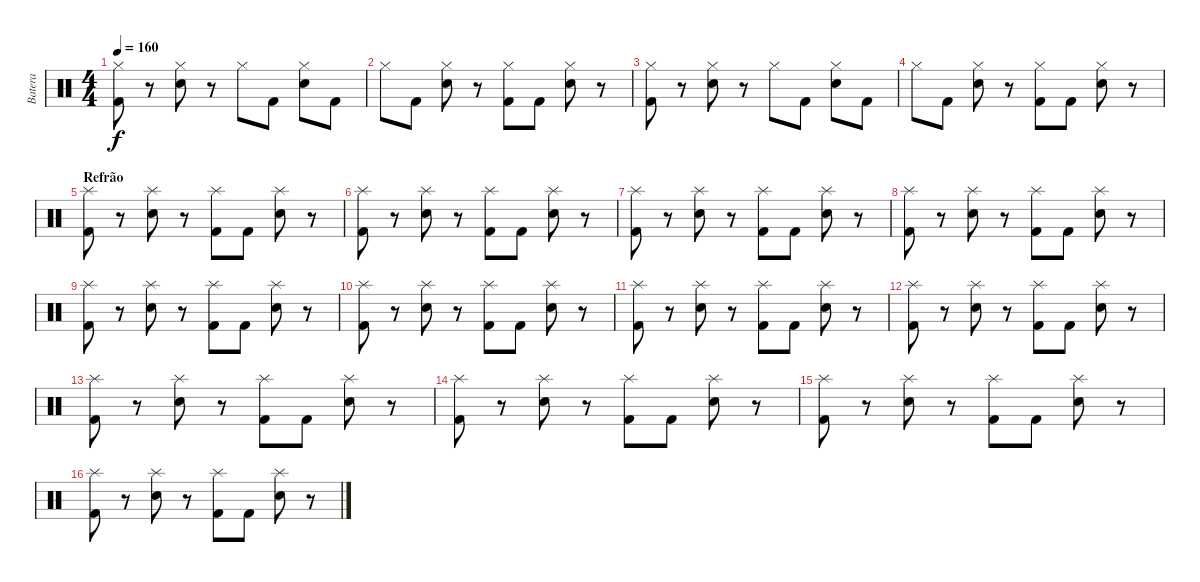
\track ("Batera" "Batera") {instrument percussion}
\staff {score}
\articulation defaults
\ts (4 4)
\tempo 160
\clef neutral
\ks c
("Hi-Hat (closed)" "Kick (hit) 2").8{dy f} r.8 ("Hi-Hat (closed)" "Electric Snare (hit)").8 r.8 "Hi-Hat (closed)".8 "Kick (hit) 2".8 ("Hi-Hat (closed)" "Electric Snare (hit)").8 "Kick (hit) 2".8 |
"Hi-Hat (closed)".8 "Kick (hit) 2".8 ("Hi-Hat (closed)" "Electric Snare (hit)").8 r.8 ("Hi-Hat (closed)" "Kick (hit) 2").8 "Kick (hit) 2".8 ("Hi-Hat (closed)" "Electric Snare (hit)").8 r.8 |
("Hi-Hat (closed)" "Kick (hit) 2").8 r.8 ("Hi-Hat (closed)" "Electric Snare (hit)").8 r.8 "Hi-Hat (closed)".8 "Kick (hit) 2".8 ("Hi-Hat (closed)" "Electric Snare (hit)").8 "Kick (hit) 2".8 |
"Hi-Hat (closed)".8 "Kick (hit) 2".8 ("Hi-Hat (closed)" "Electric Snare (hit)").8 r.8 ("Hi-Hat (closed)" "Kick (hit) 2").8 "Kick (hit) 2".8 ("Hi-Hat (closed)" "Electric Snare (hit)").8 r.8 |
\section ("" "Refrão")
("Splash (hit)" "Kick (hit) 2").8 r.8 ("Splash (hit)" "Electric Snare (hit)").8 r.8 ("Splash (hit)" "Kick (hit) 2").8 "Kick (hit) 2".8 ("Splash (hit)" "Electric Snare (hit)").8 r.8 |
("Splash (hit)" "Kick (hit) 2").8 r.8 ("Splash (hit)" "Electric Snare (hit)").8 r.8 ("Splash (hit)" "Kick (hit) 2").8 "Kick (hit) 2".8 ("Splash (hit)" "Electric Snare (hit)").8 r.8 |
("Splash (hit)" "Kick (hit) 2").8 r.8 ("Splash (hit)" "Electric Snare (hit)").8 r.8 ("Splash (hit)" "Kick (hit) 2").8 "Kick (hit) 2".8 ("Splash (hit)" "Electric Snare (hit)").8 r.8 |
("Splash (hit)" "Kick (hit) 2").8 r.8 ("Splash (hit)" "Electric Snare (hit)").8 r.8 ("Splash (hit)" "Kick (hit) 2").8 "Kick (hit) 2".8 ("Splash (hit)" "Electric Snare (hit)").8 r.8 |
("Splash (hit)" "Kick (hit) 2").8 r.8 ("Splash (hit)" "Electric Snare (hit)").8 r.8 ("Splash (hit)" "Kick (hit) 2").8 "Kick (hit) 2".8 ("Splash (hit)" "Electric Snare (hit)").8 r.8 |
("Splash (hit)" "Kick (hit) 2").8 r.8 ("Splash (hit)" "Electric Snare (hit)").8 r.8 ("Splash (hit)" "Kick (hit) 2").8 "Kick (hit) 2".8 ("Splash (hit)" "Electric Snare (hit)").8 r.8 |
("Splash (hit)" "Kick (hit) 2").8 r.8 ("Splash (hit)" "Electric Snare (hit)").8 r.8 ("Splash (hit)" "Kick (hit) 2").8 "Kick (hit) 2".8 ("Splash (hit)" "Electric Snare (hit)").8 r.8 |
("Splash (hit)" "Kick (hit) 2").8 r.8 ("Splash (hit)" "Electric Snare (hit)").8 r.8 ("Splash (hit)" "Kick (hit) 2").8 "Kick (hit) 2".8 ("Splash (hit)" "Electric Snare (hit)").8 r.8 |
("Splash (hit)" "Kick (hit) 2").8 r.8 ("Splash (hit)" "Electric Snare (hit)").8 r.8 ("Splash (hit)" "Kick (hit) 2").8 "Kick (hit) 2".8 ("Splash (hit)" "Electric Snare (hit)").8 r.8 |
("Splash (hit)" "Kick (hit) 2").8 r.8 ("Splash (hit)" "Electric Snare (hit)").8 r.8 ("Splash (hit)" "Kick (hit) 2").8 "Kick (hit) 2".8 ("Splash (hit)" "Electric Snare (hit)").8 r.8 |
("Splash (hit)" "Kick (hit) 2").8 r.8 ("Splash (hit)" "Electric Snare (hit)").8 r.8 ("Splash (hit)" "Kick (hit) 2").8 "Kick (hit) 2".8 ("Splash (hit)" "Electric Snare (hit)").8 r.8 |
("Splash (hit)" "Kick (hit) 2").8 r.8 ("Splash (hit)" "Electric Snare (hit)").8 r.8 ("Splash (hit)" "Kick (hit) 2").8 "Kick (hit) 2".8 ("Splash (hit)" "Electric Snare (hit)").8 r.8
